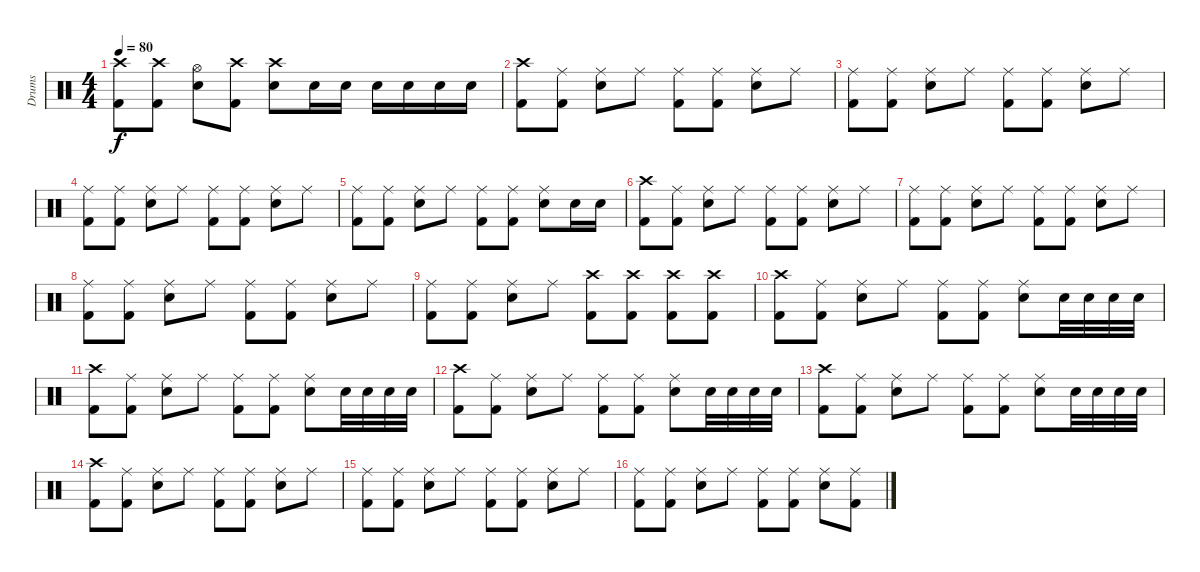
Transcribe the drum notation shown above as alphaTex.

\track ("Drums" "Drums") {instrument percussion}
\staff {score}
\articulation defaults
\ts (4 4)
\tempo 80
\clef neutral
\ks c
("Crash high (hit)" "Kick (hit) 2").8{dy f} ("Crash high (hit)" "Kick (hit) 2").8 ("Hi-Hat (open)" "Snare (hit) 2").8 ("Crash high (hit)" "Kick (hit) 2").8 ("Crash high (hit)" "Snare (hit) 2").8 "Snare (hit) 2".16 "Snare (hit) 2".16 "Snare (hit) 2".16 "Snare (hit) 2".16 "Snare (hit) 2".16 "Snare (hit) 2".16 |
("Crash high (hit)" "Kick (hit) 2").8 ("Ride (middle)" "Kick (hit) 2").8 ("Ride (middle)" "Snare (hit) 2").8 "Ride (middle)".8 ("Ride (middle)" "Kick (hit) 2").8 ("Ride (middle)" "Kick (hit) 2").8 ("Ride (middle)" "Snare (hit) 2").8 "Ride (middle)".8 |
("Ride (middle)" "Kick (hit) 2").8 ("Ride (middle)" "Kick (hit) 2").8 ("Ride (middle)" "Snare (hit) 2").8 "Ride (middle)".8 ("Ride (middle)" "Kick (hit) 2").8 ("Ride (middle)" "Kick (hit) 2").8 ("Ride (middle)" "Snare (hit) 2").8 "Ride (middle)".8 |
("Ride (middle)" "Kick (hit) 2").8 ("Ride (middle)" "Kick (hit) 2").8 ("Ride (middle)" "Snare (hit) 2").8 "Ride (middle)".8 ("Ride (middle)" "Kick (hit) 2").8 ("Ride (middle)" "Kick (hit) 2").8 ("Ride (middle)" "Snare (hit) 2").8 "Ride (middle)".8 |
("Ride (middle)" "Kick (hit) 2").8 ("Ride (middle)" "Kick (hit) 2").8 ("Ride (middle)" "Snare (hit) 2").8 "Ride (middle)".8 ("Ride (middle)" "Kick (hit) 2").8 ("Ride (middle)" "Kick (hit) 2").8 ("Ride (middle)" "Snare (hit) 2").8 "Snare (hit) 2".16 "Snare (hit) 2".16 |
("Crash high (hit)" "Kick (hit) 2").8 ("Ride (middle)" "Kick (hit) 2").8 ("Ride (middle)" "Snare (hit) 2").8 "Ride (middle)".8 ("Ride (middle)" "Kick (hit) 2").8 ("Ride (middle)" "Kick (hit) 2").8 ("Ride (middle)" "Snare (hit) 2").8 "Ride (middle)".8 |
("Ride (middle)" "Kick (hit) 2").8 ("Ride (middle)" "Kick (hit) 2").8 ("Ride (middle)" "Snare (hit) 2").8 "Ride (middle)".8 ("Ride (middle)" "Kick (hit) 2").8 ("Ride (middle)" "Kick (hit) 2").8 ("Ride (middle)" "Snare (hit) 2").8 "Ride (middle)".8 |
("Ride (middle)" "Kick (hit) 2").8 ("Ride (middle)" "Kick (hit) 2").8 ("Ride (middle)" "Snare (hit) 2").8 "Ride (middle)".8 ("Ride (middle)" "Kick (hit) 2").8 ("Ride (middle)" "Kick (hit) 2").8 ("Ride (middle)" "Snare (hit) 2").8 "Ride (middle)".8 |
("Ride (middle)" "Kick (hit) 2").8 ("Ride (middle)" "Kick (hit) 2").8 ("Ride (middle)" "Snare (hit) 2").8 "Ride (middle)".8 ("Crash high (hit)" "Kick (hit) 2").8 ("Crash high (hit)" "Kick (hit) 2").8 ("Crash high (hit)" "Kick (hit) 2").8 ("Crash high (hit)" "Kick (hit) 2").8 |
("Crash high (hit)" "Kick (hit) 2").8 ("Ride (middle)" "Kick (hit) 2").8 ("Ride (middle)" "Snare (hit) 2").8 "Ride (middle)".8 ("Ride (middle)" "Kick (hit) 2").8 ("Ride (middle)" "Kick (hit) 2").8 ("Ride (middle)" "Snare (hit) 2").8 "Snare (hit) 2".32 "Snare (hit) 2".32 "Snare (hit) 2".32 "Snare (hit) 2".32 |
("Crash high (hit)" "Kick (hit) 2").8 ("Ride (middle)" "Kick (hit) 2").8 ("Ride (middle)" "Snare (hit) 2").8 "Ride (middle)".8 ("Ride (middle)" "Kick (hit) 2").8 ("Ride (middle)" "Kick (hit) 2").8 ("Ride (middle)" "Snare (hit) 2").8 "Snare (hit) 2".32 "Snare (hit) 2".32 "Snare (hit) 2".32 "Snare (hit) 2".32 |
("Crash high (hit)" "Kick (hit) 2").8 ("Ride (middle)" "Kick (hit) 2").8 ("Ride (middle)" "Snare (hit) 2").8 "Ride (middle)".8 ("Ride (middle)" "Kick (hit) 2").8 ("Ride (middle)" "Kick (hit) 2").8 ("Ride (middle)" "Snare (hit) 2").8 "Snare (hit) 2".32 "Snare (hit) 2".32 "Snare (hit) 2".32 "Snare (hit) 2".32 |
("Crash high (hit)" "Kick (hit) 2").8 ("Ride (middle)" "Kick (hit) 2").8 ("Ride (middle)" "Snare (hit) 2").8 "Ride (middle)".8 ("Ride (middle)" "Kick (hit) 2").8 ("Ride (middle)" "Kick (hit) 2").8 ("Ride (middle)" "Snare (hit) 2").8 "Snare (hit) 2".32 "Snare (hit) 2".32 "Snare (hit) 2".32 "Snare (hit) 2".32 |
("Crash high (hit)" "Kick (hit) 2").8 ("Ride (middle)" "Kick (hit) 2").8 ("Ride (middle)" "Snare (hit) 2").8 "Ride (middle)".8 ("Ride (middle)" "Kick (hit) 2").8 ("Ride (middle)" "Kick (hit) 2").8 ("Ride (middle)" "Snare (hit) 2").8 "Ride (middle)".8 |
("Ride (middle)" "Kick (hit) 2").8 ("Ride (middle)" "Kick (hit) 2").8 ("Ride (middle)" "Snare (hit) 2").8 "Ride (middle)".8 ("Ride (middle)" "Kick (hit) 2").8 ("Ride (middle)" "Kick (hit) 2").8 ("Ride (middle)" "Snare (hit) 2").8 "Ride (middle)".8 |
("Ride (middle)" "Kick (hit) 2").8 ("Ride (middle)" "Kick (hit) 2").8 ("Ride (middle)" "Snare (hit) 2").8 "Ride (middle)".8 ("Ride (middle)" "Kick (hit) 2").8 ("Ride (middle)" "Kick (hit) 2").8 ("Ride (middle)" "Snare (hit) 2").8 ("Ride (middle)" "Kick (hit) 2").8
